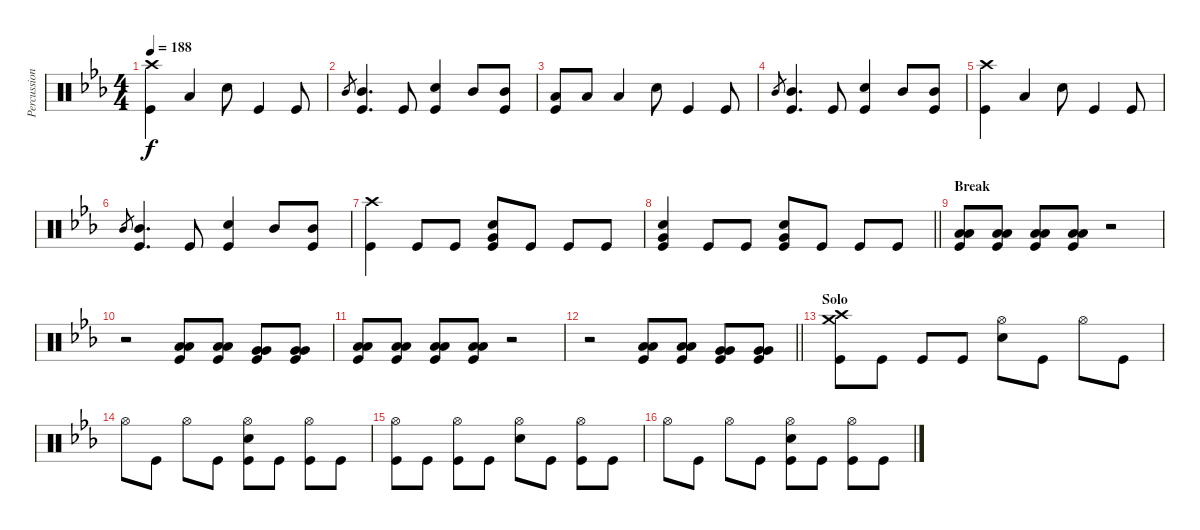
\track ("Percussion" "Percussion") {instrument percussion}
\staff {score}
\articulation defaults
\ts (4 4)
\tempo 188
\clef neutral
\ks eb
("Crash high (hit)" "Kick (hit)").4{dy f} "Low Tom (hit)".4 "Electric Snare (hit)".8 "Kick (hit)".4 "Kick (hit)".8 |
"Mid Tom (hit)".8{gr} ("Mid Tom (hit)" "Kick (hit)").4{d} "Kick (hit)".8 ("Electric Snare (hit)" "Kick (hit)").4 "Mid Tom (hit)".8 ("Mid Tom (hit)" "Kick (hit)").8 |
("Low Tom (hit)" "Kick (hit)").8 "Low Tom (hit)".8 "Low Tom (hit)".4 "Electric Snare (hit)".8 "Kick (hit)".4 "Kick (hit)".8 |
"Mid Tom (hit)".8{gr} ("Mid Tom (hit)" "Kick (hit)").4{d} "Kick (hit)".8 ("Electric Snare (hit)" "Kick (hit)").4 "Mid Tom (hit)".8 ("Mid Tom (hit)" "Kick (hit)").8 |
("Crash high (hit)" "Kick (hit)").4 "Low Tom (hit)".4 "Electric Snare (hit)".8 "Kick (hit)".4 "Kick (hit)".8 |
"Mid Tom (hit)".8{gr} ("Mid Tom (hit)" "Kick (hit)").4{d} "Kick (hit)".8 ("Electric Snare (hit)" "Kick (hit)").4 "Mid Tom (hit)".8 ("Mid Tom (hit)" "Kick (hit)").8 |
("Crash high (hit)" "Kick (hit)").4 "Kick (hit)".8 "Kick (hit)".8 ("Electric Snare (hit)" "Very Low Tom (hit)" "Kick (hit)").8 "Kick (hit)".8 "Kick (hit)".8 "Kick (hit)".8 |
\barLineRight lightlight
("Electric Snare (hit)" "Very Low Tom (hit)" "Kick (hit)").4 "Kick (hit)".8 "Kick (hit)".8 ("Electric Snare (hit)" "Very Low Tom (hit)" "Kick (hit)").8 "Kick (hit)".8 "Kick (hit)".8 "Kick (hit)".8 |
\section ("" "Break")
("Low Tom (hit)" "Low Tom (hit)" "Kick (hit)").8 ("Low Tom (hit)" "Low Tom (hit)" "Kick (hit)").8 ("Low Tom (hit)" "Low Tom (hit)" "Kick (hit)").8 ("Low Tom (hit)" "Low Tom (hit)" "Kick (hit)").8 r.2 |
r.2 ("Low Tom (hit)" "Low Tom (hit)" "Kick (hit)").8 ("Low Tom (hit)" "Low Tom (hit)" "Kick (hit)").8 ("Very Low Tom (hit)" "Very Low Tom (hit)" "Kick (hit)").8 ("Very Low Tom (hit)" "Very Low Tom (hit)" "Kick (hit)").8 |
("Low Tom (hit)" "Low Tom (hit)" "Kick (hit)").8 ("Low Tom (hit)" "Low Tom (hit)" "Kick (hit)").8 ("Low Tom (hit)" "Low Tom (hit)" "Kick (hit)").8 ("Low Tom (hit)" "Low Tom (hit)" "Kick (hit)").8 r.2 |
\barLineRight lightlight
r.2 ("Low Tom (hit)" "Low Tom (hit)" "Kick (hit)").8 ("Low Tom (hit)" "Low Tom (hit)" "Kick (hit)").8 ("Very Low Tom (hit)" "Very Low Tom (hit)" "Kick (hit)").8 ("Very Low Tom (hit)" "Very Low Tom (hit)" "Kick (hit)").8 |
\section ("" "Solo")
("Crash high (hit)" "Crash medium (hit)" "Kick (hit)").8 "Kick (hit)".8 "Kick (hit)".8 "Kick (hit)".8 ("Hi-Hat (open)" "Electric Snare (hit)").8 "Kick (hit)".8 "Hi-Hat (open)".8 "Kick (hit)".8 |
"Hi-Hat (open)".8 "Kick (hit)".8 "Hi-Hat (open)".8 "Kick (hit)".8 ("Hi-Hat (open)" "Electric Snare (hit)" "Kick (hit)").8 "Kick (hit)".8 ("Hi-Hat (open)" "Kick (hit)").8 "Kick (hit)".8 |
("Hi-Hat (open)" "Kick (hit)").8 "Kick (hit)".8 ("Hi-Hat (open)" "Kick (hit)").8 "Kick (hit)".8 ("Hi-Hat (open)" "Electric Snare (hit)").8 "Kick (hit)".8 ("Hi-Hat (open)" "Kick (hit)").8 "Kick (hit)".8 |
"Hi-Hat (open)".8 "Kick (hit)".8 "Hi-Hat (open)".8 "Kick (hit)".8 ("Hi-Hat (open)" "Electric Snare (hit)" "Kick (hit)").8 "Kick (hit)".8 ("Hi-Hat (open)" "Kick (hit)").8 "Kick (hit)".8
